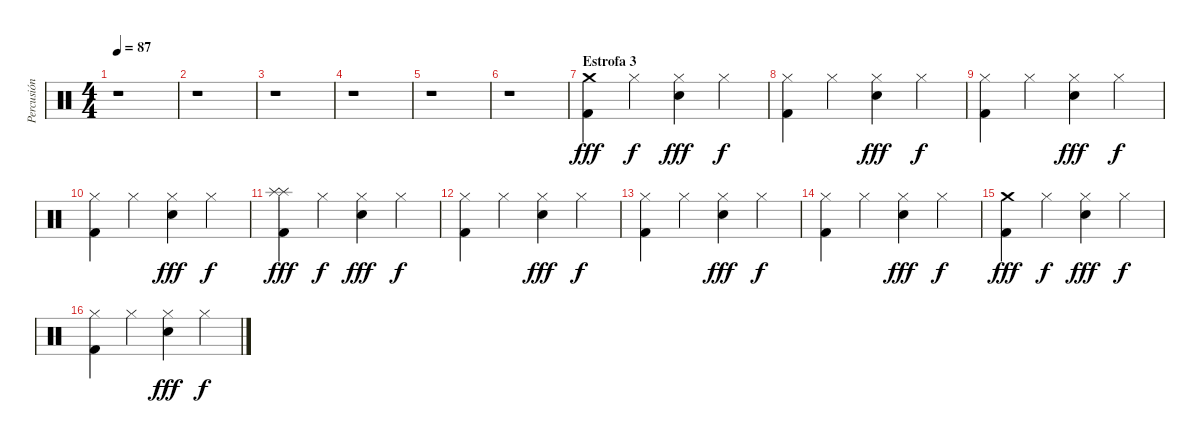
\track ("Percusión" "Percusión") {instrument percussion}
\staff {score}
\articulation defaults
\ts (4 4)
\tempo 87
\clef neutral
\ks c
r.1{dy f} |
r.1 |
r.1 |
r.1 |
r.1 |
r.1 |
\section ("" "Estrofa 3")
("Crash medium (hit)" "Kick (hit) 2").4{dy fff} "Hi-Hat (closed)".4{dy f} ("Hi-Hat (closed)" "Snare (hit) 2").4{dy fff} "Hi-Hat (closed)".4{dy f} |
("Hi-Hat (closed)" "Kick (hit) 2").4 "Hi-Hat (closed)".4 ("Hi-Hat (closed)" "Snare (hit) 2").4{dy fff} "Hi-Hat (closed)".4{dy f} |
("Hi-Hat (closed)" "Kick (hit) 2").4 "Hi-Hat (closed)".4 ("Hi-Hat (closed)" "Snare (hit) 2").4{dy fff} "Hi-Hat (closed)".4{dy f} |
("Hi-Hat (closed)" "Kick (hit) 2").4 "Hi-Hat (closed)".4 ("Hi-Hat (closed)" "Snare (hit) 2").4{dy fff} "Hi-Hat (closed)".4{dy f} |
("Splash (hit)" "Splash (hit)" "Kick (hit) 2").4{dy fff} "Hi-Hat (closed)".4{dy f} ("Hi-Hat (closed)" "Snare (hit) 2").4{dy fff} "Hi-Hat (closed)".4{dy f} |
("Hi-Hat (closed)" "Kick (hit) 2").4 "Hi-Hat (closed)".4 ("Hi-Hat (closed)" "Snare (hit) 2").4{dy fff} "Hi-Hat (closed)".4{dy f} |
("Hi-Hat (closed)" "Kick (hit) 2").4 "Hi-Hat (closed)".4 ("Hi-Hat (closed)" "Snare (hit) 2").4{dy fff} "Hi-Hat (closed)".4{dy f} |
("Hi-Hat (closed)" "Kick (hit) 2").4 "Hi-Hat (closed)".4 ("Hi-Hat (closed)" "Snare (hit) 2").4{dy fff} "Hi-Hat (closed)".4{dy f} |
("Crash medium (hit)" "Kick (hit) 2").4{dy fff} "Hi-Hat (closed)".4{dy f} ("Hi-Hat (closed)" "Snare (hit) 2").4{dy fff} "Hi-Hat (closed)".4{dy f} |
("Hi-Hat (closed)" "Kick (hit) 2").4 "Hi-Hat (closed)".4 ("Hi-Hat (closed)" "Snare (hit) 2").4{dy fff} "Hi-Hat (closed)".4{dy f}
